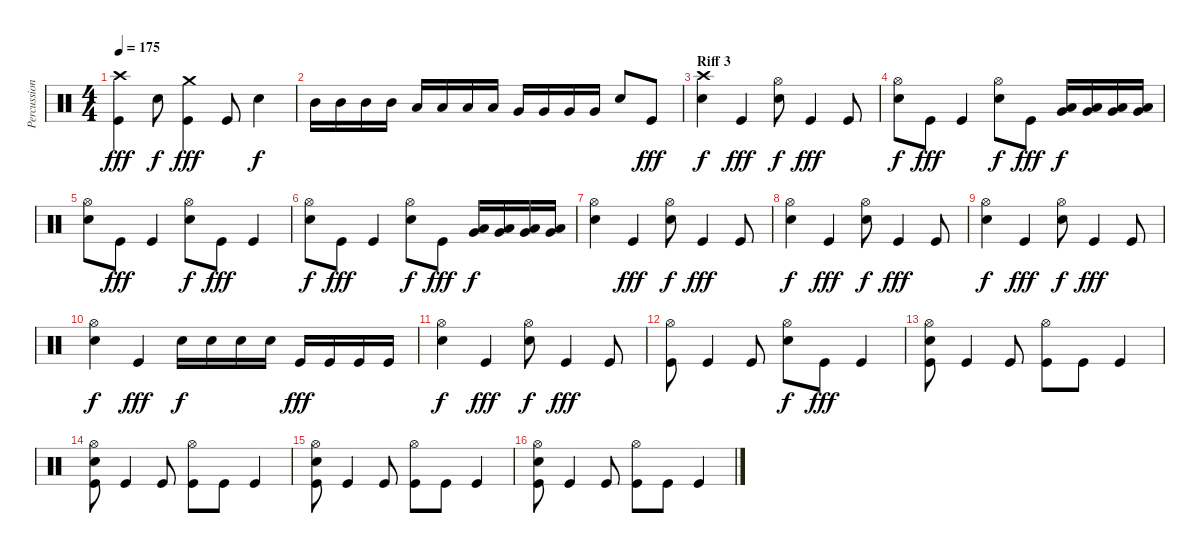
\track ("Percussions" "Percussion") {instrument percussion}
\staff {score}
\articulation defaults
\ts (4 4)
\tempo 175
\clef neutral
\ks c
("Crash high (hit)" "Kick (hit)").4{dy fff} "Electric Snare (hit)".8{dy f} ("Crash medium (hit)" "Kick (hit)").4{dy fff} "Kick (hit)".8 "Electric Snare (hit)".4{dy f} |
"Mid Tom (hit)".16 "Mid Tom (hit)".16 "Mid Tom (hit)".16 "Mid Tom (hit)".16 "Low Tom (hit)".16 "Low Tom (hit)".16 "Low Tom (hit)".16 "Low Tom (hit)".16 "Very Low Tom (hit)".16 "Very Low Tom (hit)".16 "Very Low Tom (hit)".16 "Very Low Tom (hit)".16 "Electric Snare (hit)".8 "Kick (hit)".8{dy fff} |
\section ("" "Riff 3")
("Crash high (hit)" "Electric Snare (hit)").4{dy f} "Kick (hit)".4{dy fff} ("Hi-Hat (open)" "Electric Snare (hit)").8{dy f} "Kick (hit)".4{dy fff} "Kick (hit)".8 |
("Hi-Hat (open)" "Electric Snare (hit)").8{dy f} "Kick (hit)".8{dy fff} "Kick (hit)".4 ("Hi-Hat (open)" "Electric Snare (hit)").8{dy f} "Kick (hit)".8{dy fff} ("Low Floor Tom (hit)" "Very Low Tom (hit)").16{dy f} ("Low Floor Tom (hit)" "Very Low Tom (hit)").16 ("Low Floor Tom (hit)" "Very Low Tom (hit)").16 ("Low Floor Tom (hit)" "Very Low Tom (hit)").16 |
("Hi-Hat (open)" "Electric Snare (hit)").8 "Kick (hit)".8{dy fff} "Kick (hit)".4 ("Hi-Hat (open)" "Electric Snare (hit)").8{dy f} "Kick (hit)".8{dy fff} "Kick (hit)".4 |
("Hi-Hat (open)" "Electric Snare (hit)").8{dy f} "Kick (hit)".8{dy fff} "Kick (hit)".4 ("Hi-Hat (open)" "Electric Snare (hit)").8{dy f} "Kick (hit)".8{dy fff} ("Low Floor Tom (hit)" "Very Low Tom (hit)").16{dy f} ("Low Floor Tom (hit)" "Very Low Tom (hit)").16 ("Low Floor Tom (hit)" "Very Low Tom (hit)").16 ("Low Floor Tom (hit)" "Very Low Tom (hit)").16 |
("Hi-Hat (open)" "Electric Snare (hit)").4 "Kick (hit)".4{dy fff} ("Hi-Hat (open)" "Electric Snare (hit)").8{dy f} "Kick (hit)".4{dy fff} "Kick (hit)".8 |
("Hi-Hat (open)" "Electric Snare (hit)").4{dy f} "Kick (hit)".4{dy fff} ("Hi-Hat (open)" "Electric Snare (hit)").8{dy f} "Kick (hit)".4{dy fff} "Kick (hit)".8 |
("Hi-Hat (open)" "Electric Snare (hit)").4{dy f} "Kick (hit)".4{dy fff} ("Hi-Hat (open)" "Electric Snare (hit)").8{dy f} "Kick (hit)".4{dy fff} "Kick (hit)".8 |
("Hi-Hat (open)" "Electric Snare (hit)").4{dy f} "Kick (hit)".4{dy fff} "Electric Snare (hit)".16{dy f} "Electric Snare (hit)".16 "Electric Snare (hit)".16 "Electric Snare (hit)".16 "Kick (hit)".16{dy fff} "Kick (hit)".16 "Kick (hit)".16 "Kick (hit)".16 |
("Hi-Hat (open)" "Electric Snare (hit)").4{dy f} "Kick (hit)".4{dy fff} ("Hi-Hat (open)" "Electric Snare (hit)").8{dy f} "Kick (hit)".4{dy fff} "Kick (hit)".8 |
("Hi-Hat (open)" "Kick (hit)").8 "Kick (hit)".4 "Kick (hit)".8 ("Hi-Hat (open)" "Electric Snare (hit)").8{dy f} "Kick (hit)".8{dy fff} "Kick (hit)".4 |
("Hi-Hat (open)" "Electric Snare (hit)" "Kick (hit)").8 "Kick (hit)".4 "Kick (hit)".8 ("Hi-Hat (open)" "Kick (hit)").8 "Kick (hit)".8 "Kick (hit)".4 |
("Hi-Hat (open)" "Electric Snare (hit)" "Kick (hit)").8 "Kick (hit)".4 "Kick (hit)".8 ("Hi-Hat (open)" "Kick (hit)").8 "Kick (hit)".8 "Kick (hit)".4 |
("Hi-Hat (open)" "Electric Snare (hit)" "Kick (hit)").8 "Kick (hit)".4 "Kick (hit)".8 ("Hi-Hat (open)" "Kick (hit)").8 "Kick (hit)".8 "Kick (hit)".4 |
("Hi-Hat (open)" "Electric Snare (hit)" "Kick (hit)").8 "Kick (hit)".4 "Kick (hit)".8 ("Hi-Hat (open)" "Kick (hit)").8 "Kick (hit)".8 "Kick (hit)".4
